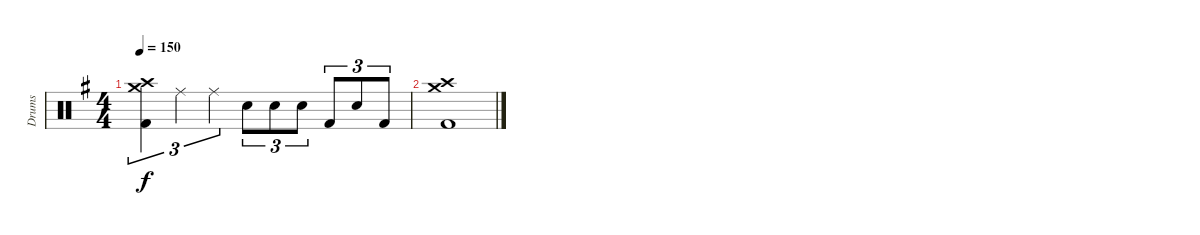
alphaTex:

\track ("Drums" "Drums") {instrument percussion}
\staff {score}
\articulation defaults
\ts (4 4)
\tempo 150
\clef neutral
\ks eminor
("Crash medium (hit)" "Crash high (hit)" "Kick (hit) 2").4{tu (3 2) dy f} "Ride (middle)".4{tu (3 2)} "Ride (middle)".4{tu (3 2)} "Snare (hit) 2".8{tu (3 2)} "Snare (hit) 2".8{tu (3 2)} "Snare (hit) 2".8{tu (3 2)} "Kick (hit) 2".8{tu (3 2)} "Snare (hit) 2".8{tu (3 2)} "Kick (hit) 2".8{tu (3 2)} |
("Crash medium (hit)" "Crash high (hit)" "Kick (hit) 2").1
